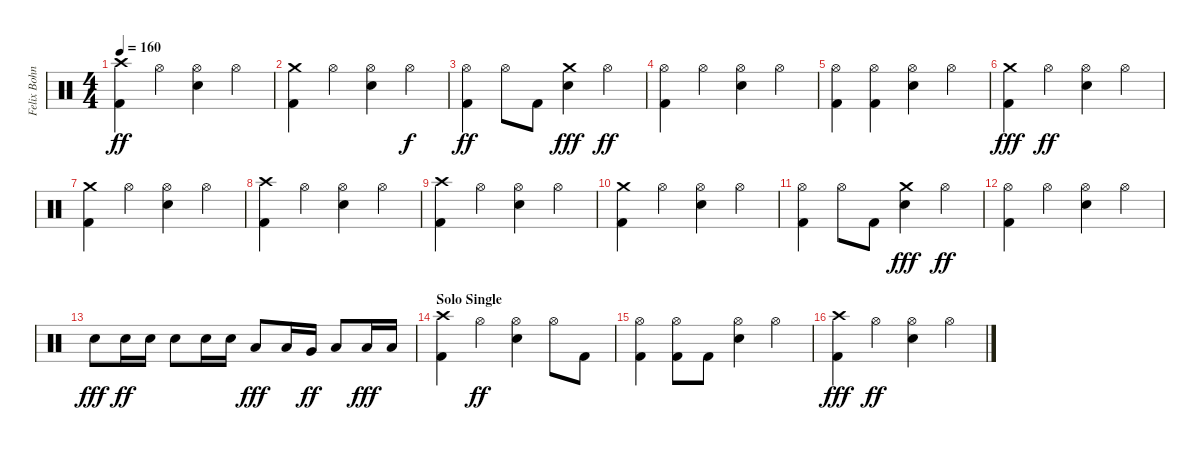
\track ("Felix Bohnke" "Felix Bohn") {instrument percussion}
\staff {score}
\articulation defaults
\ts (4 4)
\tempo 160
\clef neutral
\ks c
("Kick (hit) 2" "Crash high (hit)").4{dy ff} "Hi-Hat (open)".4 ("Snare (hit) 2" "Hi-Hat (open)").4 "Hi-Hat (open)".4 |
("Kick (hit) 2" "Crash medium (hit)").4 "Hi-Hat (open)".4 ("Snare (hit) 2" "Hi-Hat (open)").4 "Hi-Hat (open)".4{dy f} |
("Kick (hit) 2" "Hi-Hat (open)").4{dy ff} "Hi-Hat (open)".8 "Kick (hit) 2".8 ("Snare (hit) 2" "Crash medium (hit)").4{dy fff} "Hi-Hat (open)".4{dy ff} |
("Kick (hit) 2" "Hi-Hat (open)").4 "Hi-Hat (open)".4 ("Snare (hit) 2" "Hi-Hat (open)").4 "Hi-Hat (open)".4 |
("Kick (hit) 2" "Hi-Hat (open)").4 ("Kick (hit) 2" "Hi-Hat (open)").4 ("Snare (hit) 2" "Hi-Hat (open)").4 "Hi-Hat (open)".4 |
("Kick (hit) 2" "Crash medium (hit)").4{dy fff} "Hi-Hat (open)".4{dy ff} ("Snare (hit) 2" "Hi-Hat (open)").4 "Hi-Hat (open)".4 |
("Kick (hit) 2" "Crash medium (hit)").4 "Hi-Hat (open)".4 ("Snare (hit) 2" "Hi-Hat (open)").4 "Hi-Hat (open)".4 |
("Kick (hit) 2" "Crash high (hit)").4 "Hi-Hat (open)".4 ("Snare (hit) 2" "Hi-Hat (open)").4 "Hi-Hat (open)".4 |
("Kick (hit) 2" "Crash high (hit)").4 "Hi-Hat (open)".4 ("Snare (hit) 2" "Hi-Hat (open)").4 "Hi-Hat (open)".4 |
("Kick (hit) 2" "Crash medium (hit)").4 "Hi-Hat (open)".4 ("Snare (hit) 2" "Hi-Hat (open)").4 "Hi-Hat (open)".4 |
("Kick (hit) 2" "Hi-Hat (open)").4 "Hi-Hat (open)".8 "Kick (hit) 2".8 ("Snare (hit) 2" "Crash medium (hit)").4{dy fff} "Hi-Hat (open)".4{dy ff} |
("Kick (hit) 2" "Hi-Hat (open)").4 "Hi-Hat (open)".4 ("Snare (hit) 2" "Hi-Hat (open)").4 "Hi-Hat (open)".4 |
"Snare (hit) 2".8{dy fff} "Snare (hit) 2".16{dy ff} "Snare (hit) 2".16 "Snare (hit) 2".8 "Snare (hit) 2".16 "Snare (hit) 2".16 "Low Tom (hit)".8{dy fff} "Low Tom (hit)".16 "Very Low Tom (hit)".16{dy ff} "Low Floor Tom (hit)".8 "Low Floor Tom (hit)".16{dy fff} "Low Floor Tom (hit)".16 |
\section ("" "Solo Single")
("Kick (hit) 2" "Crash high (hit)").4 "Hi-Hat (open)".4{dy ff} ("Snare (hit) 2" "Hi-Hat (open)").4 "Hi-Hat (open)".8 "Kick (hit) 2".8 |
("Kick (hit) 2" "Hi-Hat (open)").4 ("Kick (hit) 2" "Hi-Hat (open)").8 "Kick (hit) 2".8 ("Snare (hit) 2" "Hi-Hat (open)").4 "Hi-Hat (open)".4 |
("Kick (hit) 2" "Crash high (hit)").4{dy fff} "Hi-Hat (open)".4{dy ff} ("Snare (hit) 2" "Hi-Hat (open)").4 "Hi-Hat (open)".4
